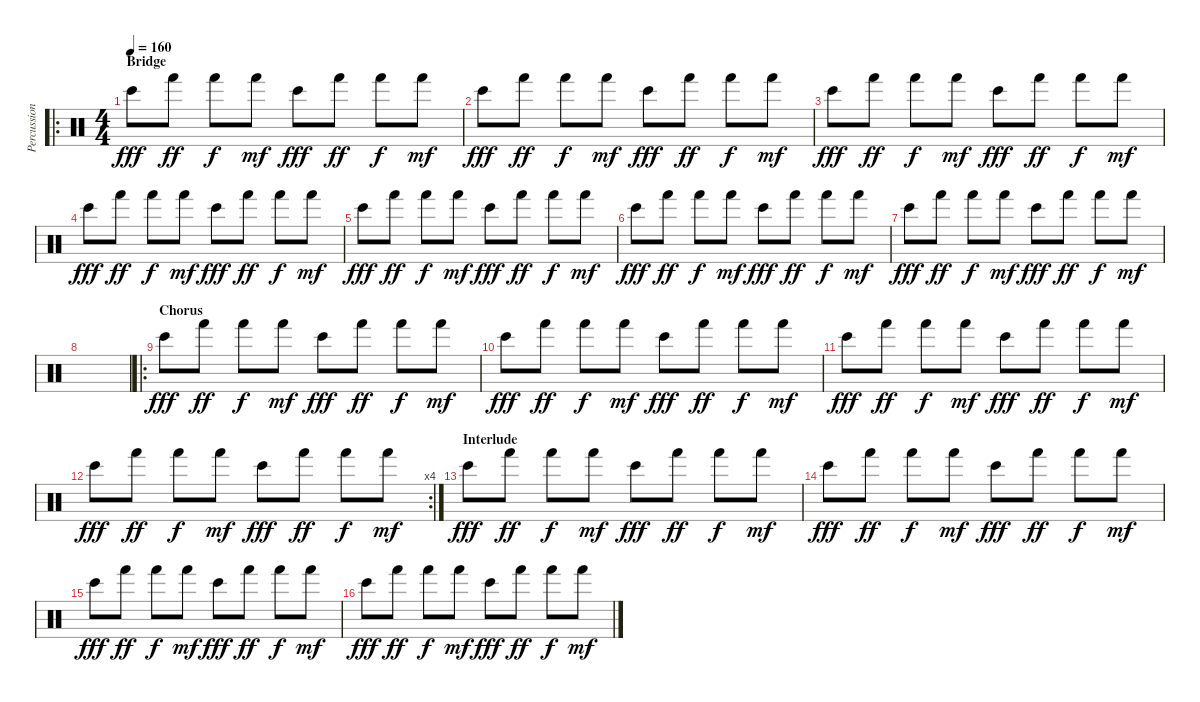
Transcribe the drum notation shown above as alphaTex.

\track ("Percussion" "Percussion") {instrument percussion}
\staff {score}
\articulation defaults
\ro
\ts (4 4)
\section ("" "Bridge")
\tempo 160
\clef neutral
\ks c "Bongo High (hit)".8{dy fff} "Hand (hit)".8{dy ff} "Hand (hit)".8{dy f} "Hand (hit)".8{dy mf} "Bongo High (hit)".8{dy fff} "Hand (hit)".8{dy ff} "Hand (hit)".8{dy f} "Hand (hit)".8{dy mf}
|
"Bongo High (hit)".8{dy fff} "Hand (hit)".8{dy ff} "Hand (hit)".8{dy f} "Hand (hit)".8{dy mf} "Bongo High (hit)".8{dy fff} "Hand (hit)".8{dy ff} "Hand (hit)".8{dy f} "Hand (hit)".8{dy mf} |
"Bongo High (hit)".8{dy fff} "Hand (hit)".8{dy ff} "Hand (hit)".8{dy f} "Hand (hit)".8{dy mf} "Bongo High (hit)".8{dy fff} "Hand (hit)".8{dy ff} "Hand (hit)".8{dy f} "Hand (hit)".8{dy mf} |
"Bongo High (hit)".8{dy fff} "Hand (hit)".8{dy ff} "Hand (hit)".8{dy f} "Hand (hit)".8{dy mf} "Bongo High (hit)".8{dy fff} "Hand (hit)".8{dy ff} "Hand (hit)".8{dy f} "Hand (hit)".8{dy mf} |
"Bongo High (hit)".8{dy fff} "Hand (hit)".8{dy ff} "Hand (hit)".8{dy f} "Hand (hit)".8{dy mf} "Bongo High (hit)".8{dy fff} "Hand (hit)".8{dy ff} "Hand (hit)".8{dy f} "Hand (hit)".8{dy mf} |
"Bongo High (hit)".8{dy fff} "Hand (hit)".8{dy ff} "Hand (hit)".8{dy f} "Hand (hit)".8{dy mf} "Bongo High (hit)".8{dy fff} "Hand (hit)".8{dy ff} "Hand (hit)".8{dy f} "Hand (hit)".8{dy mf} |
"Bongo High (hit)".8{dy fff} "Hand (hit)".8{dy ff} "Hand (hit)".8{dy f} "Hand (hit)".8{dy mf} "Bongo High (hit)".8{dy fff} "Hand (hit)".8{dy ff} "Hand (hit)".8{dy f} "Hand (hit)".8{dy mf} |
|
\ro
\section ("" "Chorus")
"Bongo High (hit)".8{dy fff} "Hand (hit)".8{dy ff} "Hand (hit)".8{dy f} "Hand (hit)".8{dy mf} "Bongo High (hit)".8{dy fff} "Hand (hit)".8{dy ff} "Hand (hit)".8{dy f} "Hand (hit)".8{dy mf} |
"Bongo High (hit)".8{dy fff} "Hand (hit)".8{dy ff} "Hand (hit)".8{dy f} "Hand (hit)".8{dy mf} "Bongo High (hit)".8{dy fff} "Hand (hit)".8{dy ff} "Hand (hit)".8{dy f} "Hand (hit)".8{dy mf} |
"Bongo High (hit)".8{dy fff} "Hand (hit)".8{dy ff} "Hand (hit)".8{dy f} "Hand (hit)".8{dy mf} "Bongo High (hit)".8{dy fff} "Hand (hit)".8{dy ff} "Hand (hit)".8{dy f} "Hand (hit)".8{dy mf} |
\rc 4 "Bongo High (hit)".8{dy fff} "Hand (hit)".8{dy ff} "Hand (hit)".8{dy f} "Hand (hit)".8{dy mf} "Bongo High (hit)".8{dy fff} "Hand (hit)".8{dy ff} "Hand (hit)".8{dy f} "Hand (hit)".8{dy mf}
|
\section ("" "Interlude")
"Bongo High (hit)".8{dy fff} "Hand (hit)".8{dy ff} "Hand (hit)".8{dy f} "Hand (hit)".8{dy mf} "Bongo High (hit)".8{dy fff} "Hand (hit)".8{dy ff} "Hand (hit)".8{dy f} "Hand (hit)".8{dy mf} |
"Bongo High (hit)".8{dy fff} "Hand (hit)".8{dy ff} "Hand (hit)".8{dy f} "Hand (hit)".8{dy mf} "Bongo High (hit)".8{dy fff} "Hand (hit)".8{dy ff} "Hand (hit)".8{dy f} "Hand (hit)".8{dy mf} |
"Bongo High (hit)".8{dy fff} "Hand (hit)".8{dy ff} "Hand (hit)".8{dy f} "Hand (hit)".8{dy mf} "Bongo High (hit)".8{dy fff} "Hand (hit)".8{dy ff} "Hand (hit)".8{dy f} "Hand (hit)".8{dy mf} |
"Bongo High (hit)".8{dy fff} "Hand (hit)".8{dy ff} "Hand (hit)".8{dy f} "Hand (hit)".8{dy mf} "Bongo High (hit)".8{dy fff} "Hand (hit)".8{dy ff} "Hand (hit)".8{dy f} "Hand (hit)".8{dy mf}
